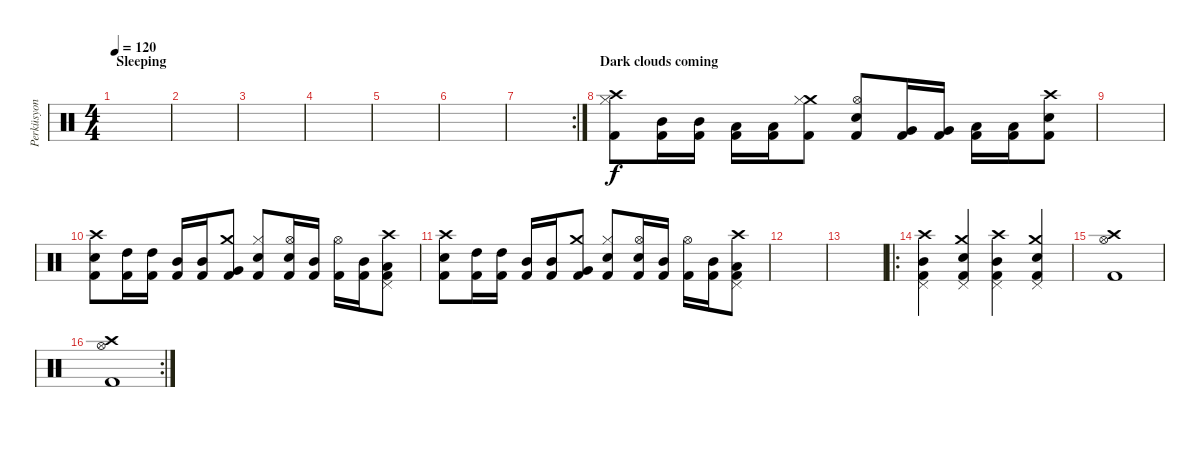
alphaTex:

\track ("Perküsyon" "Perküsyon") {instrument percussion}
\staff {score}
\articulation defaults
\ts (4 4)
\section ("" "Sleeping")
\tempo 120
\clef neutral
\ks c
|
|
|
|
|
|
\rc 2
|
\section ("" "Dark clouds coming")
("Crash high (hit)" "Kick (hit) 2" "Hi-Hat (closed)").8 ("Mid Tom (hit)" "Kick (hit) 2").16 ("Mid Tom (hit)" "Kick (hit) 2").16 ("Low Tom (hit)" "Kick (hit) 2").16 ("Low Tom (hit)" "Kick (hit) 2").16 ("Crash medium (hit)" "Kick (hit) 2" "Hi-Hat (closed)").8 ("Hi-Hat (open)" "Kick (hit) 2" "Snare (hit) 2").8 ("Very Low Tom (hit)" "Kick (hit) 2").16 ("Very Low Tom (hit)" "Kick (hit) 2").16 ("Low Floor Tom (hit)" "Kick (hit) 2").16 ("Low Floor Tom (hit)" "Kick (hit) 2").16 ("Crash high (hit)" "Kick (hit) 2" "Snare (hit) 2").8 |
|
("Kick (hit) 2" "Crash high (hit)" "Snare (hit) 2").8 ("Kick (hit) 2" "High Tom (hit)").16 ("Kick (hit) 2" "High Tom (hit)").16 ("Kick (hit) 2" "Mid Tom (hit)").16 ("Kick (hit) 2" "Mid Tom (hit)").16 ("Kick (hit) 2" "Very Low Tom (hit)" "Crash medium (hit)").8 ("Kick (hit) 2" "Hi-Hat (closed)" "Snare (hit) 2").8 ("Kick (hit) 2" "Hi-Hat (open)" "Snare (hit) 2").16 ("Kick (hit) 2" "Mid Tom (hit)").16 ("Kick (hit) 2" "Hi-Hat (open)").16 ("Kick (hit) 2" "Mid Tom (hit)").16 ("Kick (hit) 2" "Low Tom (hit)" "Crash high (hit)" "Pedal Hi-Hat (hit)").8 |
("Kick (hit) 2" "Crash high (hit)" "Snare (hit) 2").8 ("Kick (hit) 2" "High Tom (hit)").16 ("Kick (hit) 2" "High Tom (hit)").16 ("Kick (hit) 2" "Mid Tom (hit)").16 ("Kick (hit) 2" "Mid Tom (hit)").16 ("Kick (hit) 2" "Very Low Tom (hit)" "Crash medium (hit)").8 ("Kick (hit) 2" "Hi-Hat (closed)" "Snare (hit) 2").8 ("Kick (hit) 2" "Hi-Hat (open)" "Snare (hit) 2").16 ("Kick (hit) 2" "Mid Tom (hit)").16 ("Kick (hit) 2" "Hi-Hat (open)").16 ("Kick (hit) 2" "Mid Tom (hit)").16 ("Kick (hit) 2" "Low Tom (hit)" "Crash high (hit)" "Pedal Hi-Hat (hit)").8 |
|
|
\ro
("Crash high (hit)" "Mid Tom (hit)" "Kick (hit) 2" "Pedal Hi-Hat (hit)").4 ("Snare (hit) 2" "Crash medium (hit)" "Kick (hit) 2" "Pedal Hi-Hat (hit)").4 ("Crash high (hit)" "Mid Tom (hit)" "Kick (hit) 2" "Pedal Hi-Hat (hit)").4 ("Snare (hit) 2" "Crash medium (hit)" "Kick (hit) 2" "Pedal Hi-Hat (hit)").4 |
("Crash high (hit)" "Kick (hit) 2" "Hi-Hat (open)").1 |
\rc 2
("Crash high (hit)" "Kick (hit) 2" "Hi-Hat (open)").1
